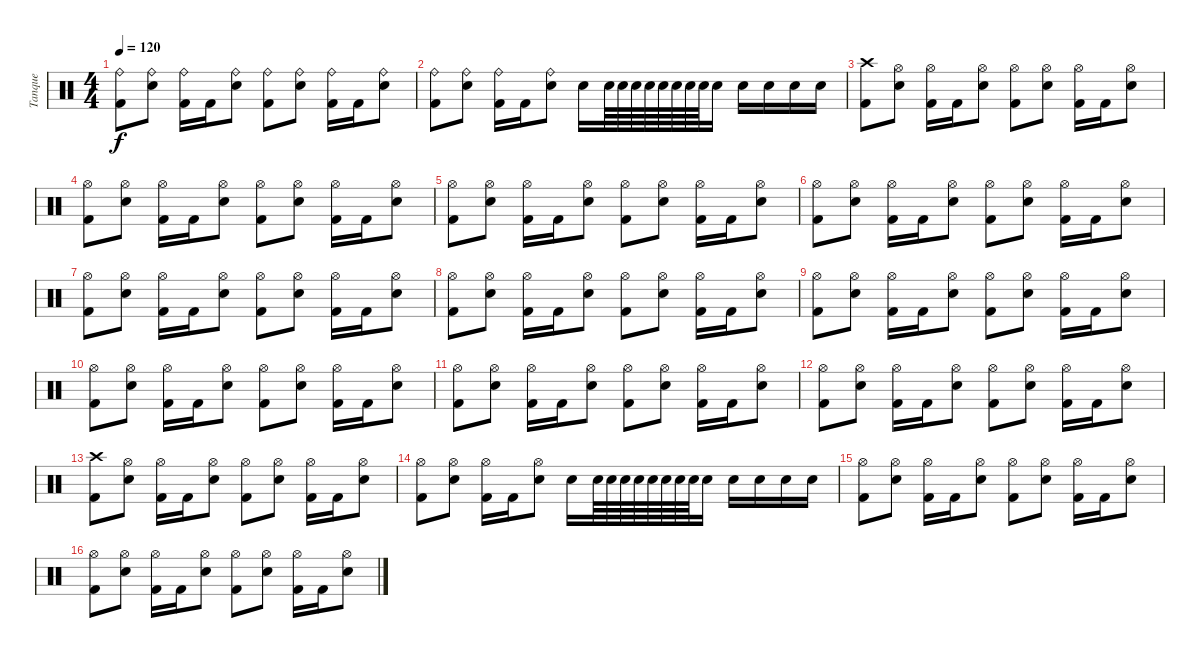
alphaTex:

\track ("Tanque" "Tanque") {instrument percussion}
\staff {score}
\articulation defaults
\ts (4 4)
\tempo 120
\clef neutral
\ks c
("Kick (hit) 2" "Ride (bell)").8{dy f} ("Snare (hit) 2" "Ride (bell)").8 ("Kick (hit) 2" "Ride (bell)").16 "Kick (hit) 2".16 ("Snare (hit) 2" "Ride (bell)").8 ("Kick (hit) 2" "Ride (bell)").8 ("Snare (hit) 2" "Ride (bell)").8 ("Kick (hit) 2" "Ride (bell)").16 "Kick (hit) 2".16 ("Snare (hit) 2" "Ride (bell)").8 |
("Kick (hit) 2" "Ride (bell)").8 ("Snare (hit) 2" "Ride (bell)").8 ("Kick (hit) 2" "Ride (bell)").16 "Kick (hit) 2".16 ("Snare (hit) 2" "Ride (bell)").8 "Snare (hit) 2".16 "Snare (hit) 2".64 "Snare (hit) 2".64 "Snare (hit) 2".64 "Snare (hit) 2".64 "Snare (hit) 2".64 "Snare (hit) 2".64 "Snare (hit) 2".64 "Snare (hit) 2".64 "Snare (hit) 2".16 "Snare (hit) 2".16 "Snare (hit) 2".16 "Snare (hit) 2".16 "Snare (hit) 2".16 |
("Kick (hit) 2" "Crash high (hit)").8 ("Snare (hit) 2" "Hi-Hat (open)").8 ("Kick (hit) 2" "Hi-Hat (open)").16 "Kick (hit) 2".16 ("Snare (hit) 2" "Hi-Hat (open)").8 ("Kick (hit) 2" "Hi-Hat (open)").8 ("Snare (hit) 2" "Hi-Hat (open)").8 ("Kick (hit) 2" "Hi-Hat (open)").16 "Kick (hit) 2".16 ("Snare (hit) 2" "Hi-Hat (open)").8 |
("Kick (hit) 2" "Hi-Hat (open)").8 ("Snare (hit) 2" "Hi-Hat (open)").8 ("Kick (hit) 2" "Hi-Hat (open)").16 "Kick (hit) 2".16 ("Snare (hit) 2" "Hi-Hat (open)").8 ("Kick (hit) 2" "Hi-Hat (open)").8 ("Snare (hit) 2" "Hi-Hat (open)").8 ("Kick (hit) 2" "Hi-Hat (open)").16 "Kick (hit) 2".16 ("Snare (hit) 2" "Hi-Hat (open)").8 |
("Kick (hit) 2" "Hi-Hat (open)").8 ("Snare (hit) 2" "Hi-Hat (open)").8 ("Kick (hit) 2" "Hi-Hat (open)").16 "Kick (hit) 2".16 ("Snare (hit) 2" "Hi-Hat (open)").8 ("Kick (hit) 2" "Hi-Hat (open)").8 ("Snare (hit) 2" "Hi-Hat (open)").8 ("Kick (hit) 2" "Hi-Hat (open)").16 "Kick (hit) 2".16 ("Snare (hit) 2" "Hi-Hat (open)").8 |
("Kick (hit) 2" "Hi-Hat (open)").8 ("Snare (hit) 2" "Hi-Hat (open)").8 ("Kick (hit) 2" "Hi-Hat (open)").16 "Kick (hit) 2".16 ("Snare (hit) 2" "Hi-Hat (open)").8 ("Kick (hit) 2" "Hi-Hat (open)").8 ("Snare (hit) 2" "Hi-Hat (open)").8 ("Kick (hit) 2" "Hi-Hat (open)").16 "Kick (hit) 2".16 ("Snare (hit) 2" "Hi-Hat (open)").8 |
("Kick (hit) 2" "Hi-Hat (open)").8 ("Snare (hit) 2" "Hi-Hat (open)").8 ("Kick (hit) 2" "Hi-Hat (open)").16 "Kick (hit) 2".16 ("Snare (hit) 2" "Hi-Hat (open)").8 ("Kick (hit) 2" "Hi-Hat (open)").8 ("Snare (hit) 2" "Hi-Hat (open)").8 ("Kick (hit) 2" "Hi-Hat (open)").16 "Kick (hit) 2".16 ("Snare (hit) 2" "Hi-Hat (open)").8 |
("Kick (hit) 2" "Hi-Hat (open)").8 ("Snare (hit) 2" "Hi-Hat (open)").8 ("Kick (hit) 2" "Hi-Hat (open)").16 "Kick (hit) 2".16 ("Snare (hit) 2" "Hi-Hat (open)").8 ("Kick (hit) 2" "Hi-Hat (open)").8 ("Snare (hit) 2" "Hi-Hat (open)").8 ("Kick (hit) 2" "Hi-Hat (open)").16 "Kick (hit) 2".16 ("Snare (hit) 2" "Hi-Hat (open)").8 |
("Kick (hit) 2" "Hi-Hat (open)").8 ("Snare (hit) 2" "Hi-Hat (open)").8 ("Kick (hit) 2" "Hi-Hat (open)").16 "Kick (hit) 2".16 ("Snare (hit) 2" "Hi-Hat (open)").8 ("Kick (hit) 2" "Hi-Hat (open)").8 ("Snare (hit) 2" "Hi-Hat (open)").8 ("Kick (hit) 2" "Hi-Hat (open)").16 "Kick (hit) 2".16 ("Snare (hit) 2" "Hi-Hat (open)").8 |
("Kick (hit) 2" "Hi-Hat (open)").8 ("Snare (hit) 2" "Hi-Hat (open)").8 ("Kick (hit) 2" "Hi-Hat (open)").16 "Kick (hit) 2".16 ("Snare (hit) 2" "Hi-Hat (open)").8 ("Kick (hit) 2" "Hi-Hat (open)").8 ("Snare (hit) 2" "Hi-Hat (open)").8 ("Kick (hit) 2" "Hi-Hat (open)").16 "Kick (hit) 2".16 ("Snare (hit) 2" "Hi-Hat (open)").8 |
("Kick (hit) 2" "Hi-Hat (open)").8 ("Snare (hit) 2" "Hi-Hat (open)").8 ("Kick (hit) 2" "Hi-Hat (open)").16 "Kick (hit) 2".16 ("Snare (hit) 2" "Hi-Hat (open)").8 ("Kick (hit) 2" "Hi-Hat (open)").8 ("Snare (hit) 2" "Hi-Hat (open)").8 ("Kick (hit) 2" "Hi-Hat (open)").16 "Kick (hit) 2".16 ("Snare (hit) 2" "Hi-Hat (open)").8 |
("Kick (hit) 2" "Hi-Hat (open)").8 ("Snare (hit) 2" "Hi-Hat (open)").8 ("Kick (hit) 2" "Hi-Hat (open)").16 "Kick (hit) 2".16 ("Snare (hit) 2" "Hi-Hat (open)").8 ("Kick (hit) 2" "Hi-Hat (open)").8 ("Snare (hit) 2" "Hi-Hat (open)").8 ("Kick (hit) 2" "Hi-Hat (open)").16 "Kick (hit) 2".16 ("Snare (hit) 2" "Hi-Hat (open)").8 |
("Kick (hit) 2" "Crash high (hit)").8 ("Snare (hit) 2" "Hi-Hat (open)").8 ("Kick (hit) 2" "Hi-Hat (open)").16 "Kick (hit) 2".16 ("Snare (hit) 2" "Hi-Hat (open)").8 ("Kick (hit) 2" "Hi-Hat (open)").8 ("Snare (hit) 2" "Hi-Hat (open)").8 ("Kick (hit) 2" "Hi-Hat (open)").16 "Kick (hit) 2".16 ("Snare (hit) 2" "Hi-Hat (open)").8 |
("Kick (hit) 2" "Hi-Hat (open)").8 ("Snare (hit) 2" "Hi-Hat (open)").8 ("Kick (hit) 2" "Hi-Hat (open)").16 "Kick (hit) 2".16 ("Snare (hit) 2" "Hi-Hat (open)").8 "Snare (hit) 2".16 "Snare (hit) 2".64 "Snare (hit) 2".64 "Snare (hit) 2".64 "Snare (hit) 2".64 "Snare (hit) 2".64 "Snare (hit) 2".64 "Snare (hit) 2".64 "Snare (hit) 2".64 "Snare (hit) 2".16 "Snare (hit) 2".16 "Snare (hit) 2".16 "Snare (hit) 2".16 "Snare (hit) 2".16 |
("Kick (hit) 2" "Hi-Hat (open)").8 ("Snare (hit) 2" "Hi-Hat (open)").8 ("Kick (hit) 2" "Hi-Hat (open)").16 "Kick (hit) 2".16 ("Snare (hit) 2" "Hi-Hat (open)").8 ("Kick (hit) 2" "Hi-Hat (open)").8 ("Snare (hit) 2" "Hi-Hat (open)").8 ("Kick (hit) 2" "Hi-Hat (open)").16 "Kick (hit) 2".16 ("Snare (hit) 2" "Hi-Hat (open)").8 |
("Kick (hit) 2" "Hi-Hat (open)").8 ("Snare (hit) 2" "Hi-Hat (open)").8 ("Kick (hit) 2" "Hi-Hat (open)").16 "Kick (hit) 2".16 ("Snare (hit) 2" "Hi-Hat (open)").8 ("Kick (hit) 2" "Hi-Hat (open)").8 ("Snare (hit) 2" "Hi-Hat (open)").8 ("Kick (hit) 2" "Hi-Hat (open)").16 "Kick (hit) 2".16 ("Snare (hit) 2" "Hi-Hat (open)").8
